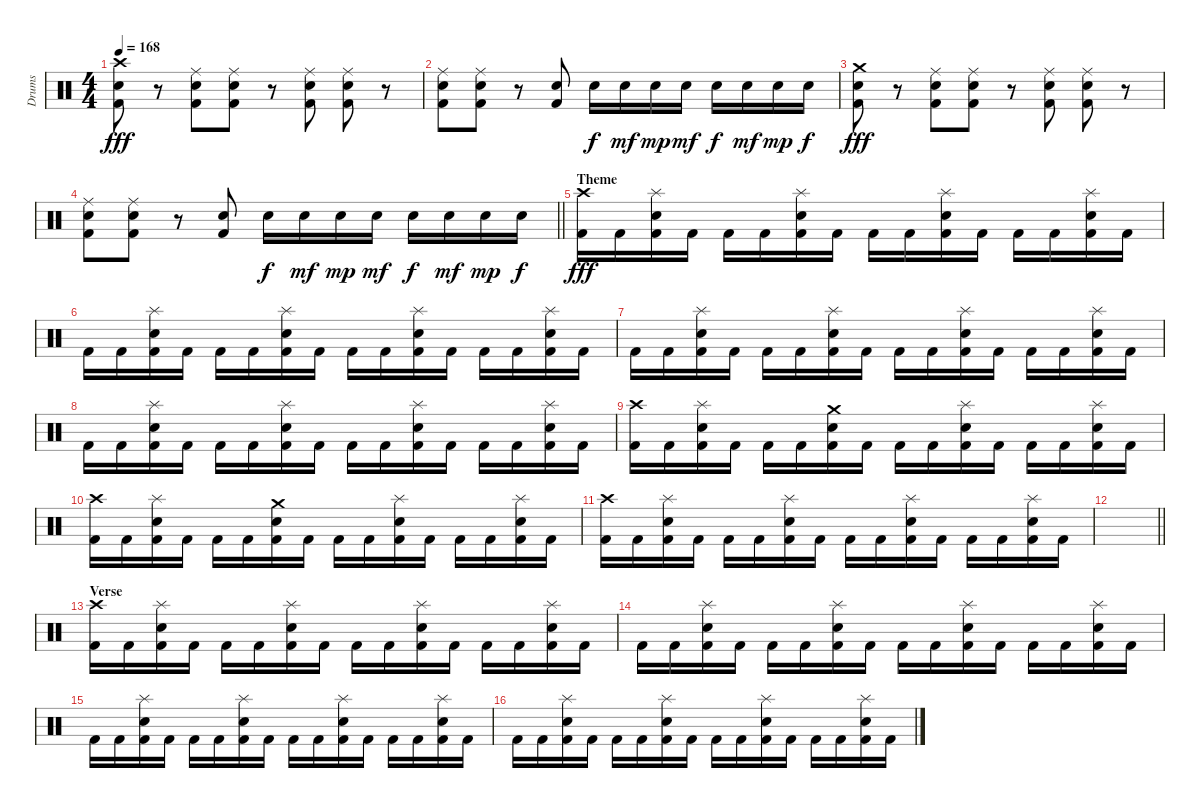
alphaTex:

\track ("Drums" "Drums") {instrument percussion}
\staff {score}
\articulation defaults
\ts (4 4)
\tempo 168
\clef neutral
\ks aminor
("Crash high (hit)" "Snare (hit) 2" "Kick (hit) 2").8{dy fff} r.8 ("Ride (middle)" "Snare (hit) 2" "Kick (hit) 2").8 ("Ride (middle)" "Snare (hit) 2" "Kick (hit) 2").8 r.8 ("Ride (middle)" "Snare (hit) 2" "Kick (hit) 2").8 ("Ride (middle)" "Snare (hit) 2" "Kick (hit) 2").8 r.8 |
("Ride (middle)" "Snare (hit) 2" "Kick (hit) 2").8 ("Ride (middle)" "Snare (hit) 2" "Kick (hit) 2").8 r.8 ("Snare (hit) 2" "Kick (hit) 2").8 "Snare (hit) 2".16{dy f} "Snare (hit) 2".16{dy mf} "Snare (hit) 2".16{dy mp} "Snare (hit) 2".16{dy mf} "Snare (hit) 2".16{dy f} "Snare (hit) 2".16{dy mf} "Snare (hit) 2".16{dy mp} "Snare (hit) 2".16{dy f} |
("Crash medium (hit)" "Snare (hit) 2" "Kick (hit) 2").8{dy fff} r.8 ("Ride (middle)" "Snare (hit) 2" "Kick (hit) 2").8 ("Ride (middle)" "Snare (hit) 2" "Kick (hit) 2").8 r.8 ("Ride (middle)" "Snare (hit) 2" "Kick (hit) 2").8 ("Ride (middle)" "Snare (hit) 2" "Kick (hit) 2").8 r.8 |
\barLineRight lightlight
("Ride (middle)" "Snare (hit) 2" "Kick (hit) 2").8 ("Ride (middle)" "Snare (hit) 2" "Kick (hit) 2").8 r.8 ("Snare (hit) 2" "Kick (hit) 2").8 "Snare (hit) 2".16{dy f} "Snare (hit) 2".16{dy mf} "Snare (hit) 2".16{dy mp} "Snare (hit) 2".16{dy mf} "Snare (hit) 2".16{dy f} "Snare (hit) 2".16{dy mf} "Snare (hit) 2".16{dy mp} "Snare (hit) 2".16{dy f} |
\section ("" "Theme")
("Crash high (hit)" "Kick (hit) 2").16{dy fff} "Kick (hit) 2".16 ("Splash (hit)" "Snare (hit) 2" "Kick (hit) 2").16 "Kick (hit) 2".16 "Kick (hit) 2".16 "Kick (hit) 2".16 ("Splash (hit)" "Snare (hit) 2" "Kick (hit) 2").16 "Kick (hit) 2".16 "Kick (hit) 2".16 "Kick (hit) 2".16 ("Splash (hit)" "Snare (hit) 2" "Kick (hit) 2").16 "Kick (hit) 2".16 "Kick (hit) 2".16 "Kick (hit) 2".16 ("Splash (hit)" "Snare (hit) 2" "Kick (hit) 2").16 "Kick (hit) 2".16 |
"Kick (hit) 2".16 "Kick (hit) 2".16 ("Splash (hit)" "Snare (hit) 2" "Kick (hit) 2").16 "Kick (hit) 2".16 "Kick (hit) 2".16 "Kick (hit) 2".16 ("Splash (hit)" "Snare (hit) 2" "Kick (hit) 2").16 "Kick (hit) 2".16 "Kick (hit) 2".16 "Kick (hit) 2".16 ("Splash (hit)" "Snare (hit) 2" "Kick (hit) 2").16 "Kick (hit) 2".16 "Kick (hit) 2".16 "Kick (hit) 2".16 ("Splash (hit)" "Snare (hit) 2" "Kick (hit) 2").16 "Kick (hit) 2".16 |
"Kick (hit) 2".16 "Kick (hit) 2".16 ("Splash (hit)" "Snare (hit) 2" "Kick (hit) 2").16 "Kick (hit) 2".16 "Kick (hit) 2".16 "Kick (hit) 2".16 ("Splash (hit)" "Snare (hit) 2" "Kick (hit) 2").16 "Kick (hit) 2".16 "Kick (hit) 2".16 "Kick (hit) 2".16 ("Splash (hit)" "Snare (hit) 2" "Kick (hit) 2").16 "Kick (hit) 2".16 "Kick (hit) 2".16 "Kick (hit) 2".16 ("Splash (hit)" "Snare (hit) 2" "Kick (hit) 2").16 "Kick (hit) 2".16 |
"Kick (hit) 2".16 "Kick (hit) 2".16 ("Splash (hit)" "Snare (hit) 2" "Kick (hit) 2").16 "Kick (hit) 2".16 "Kick (hit) 2".16 "Kick (hit) 2".16 ("Splash (hit)" "Snare (hit) 2" "Kick (hit) 2").16 "Kick (hit) 2".16 "Kick (hit) 2".16 "Kick (hit) 2".16 ("Splash (hit)" "Snare (hit) 2" "Kick (hit) 2").16 "Kick (hit) 2".16 "Kick (hit) 2".16 "Kick (hit) 2".16 ("Splash (hit)" "Snare (hit) 2" "Kick (hit) 2").16 "Kick (hit) 2".16 |
("Crash high (hit)" "Kick (hit) 2").16 "Kick (hit) 2".16 ("Splash (hit)" "Snare (hit) 2" "Kick (hit) 2").16 "Kick (hit) 2".16 "Kick (hit) 2".16 "Kick (hit) 2".16 ("Crash medium (hit)" "Snare (hit) 2" "Kick (hit) 2").16 "Kick (hit) 2".16 "Kick (hit) 2".16 "Kick (hit) 2".16 ("Splash (hit)" "Snare (hit) 2" "Kick (hit) 2").16 "Kick (hit) 2".16 "Kick (hit) 2".16 "Kick (hit) 2".16 ("Splash (hit)" "Snare (hit) 2" "Kick (hit) 2").16 "Kick (hit) 2".16 |
("Crash high (hit)" "Kick (hit) 2").16 "Kick (hit) 2".16 ("Splash (hit)" "Snare (hit) 2" "Kick (hit) 2").16 "Kick (hit) 2".16 "Kick (hit) 2".16 "Kick (hit) 2".16 ("Crash medium (hit)" "Snare (hit) 2" "Kick (hit) 2").16 "Kick (hit) 2".16 "Kick (hit) 2".16 "Kick (hit) 2".16 ("Splash (hit)" "Snare (hit) 2" "Kick (hit) 2").16 "Kick (hit) 2".16 "Kick (hit) 2".16 "Kick (hit) 2".16 ("Splash (hit)" "Snare (hit) 2" "Kick (hit) 2").16 "Kick (hit) 2".16 |
("Crash high (hit)" "Kick (hit) 2").16 "Kick (hit) 2".16 ("Splash (hit)" "Snare (hit) 2" "Kick (hit) 2").16 "Kick (hit) 2".16 "Kick (hit) 2".16 "Kick (hit) 2".16 ("Splash (hit)" "Snare (hit) 2" "Kick (hit) 2").16 "Kick (hit) 2".16 "Kick (hit) 2".16 "Kick (hit) 2".16 ("Splash (hit)" "Snare (hit) 2" "Kick (hit) 2").16 "Kick (hit) 2".16 "Kick (hit) 2".16 "Kick (hit) 2".16 ("Splash (hit)" "Snare (hit) 2" "Kick (hit) 2").16 "Kick (hit) 2".16 |
\barLineRight lightlight
|
\section ("" "Verse")
("Crash high (hit)" "Kick (hit) 2").16 "Kick (hit) 2".16 ("Splash (hit)" "Snare (hit) 2" "Kick (hit) 2").16 "Kick (hit) 2".16 "Kick (hit) 2".16 "Kick (hit) 2".16 ("Splash (hit)" "Snare (hit) 2" "Kick (hit) 2").16 "Kick (hit) 2".16 "Kick (hit) 2".16 "Kick (hit) 2".16 ("Splash (hit)" "Snare (hit) 2" "Kick (hit) 2").16 "Kick (hit) 2".16 "Kick (hit) 2".16 "Kick (hit) 2".16 ("Splash (hit)" "Snare (hit) 2" "Kick (hit) 2").16 "Kick (hit) 2".16 |
"Kick (hit) 2".16 "Kick (hit) 2".16 ("Splash (hit)" "Snare (hit) 2" "Kick (hit) 2").16 "Kick (hit) 2".16 "Kick (hit) 2".16 "Kick (hit) 2".16 ("Splash (hit)" "Snare (hit) 2" "Kick (hit) 2").16 "Kick (hit) 2".16 "Kick (hit) 2".16 "Kick (hit) 2".16 ("Splash (hit)" "Snare (hit) 2" "Kick (hit) 2").16 "Kick (hit) 2".16 "Kick (hit) 2".16 "Kick (hit) 2".16 ("Splash (hit)" "Snare (hit) 2" "Kick (hit) 2").16 "Kick (hit) 2".16 |
"Kick (hit) 2".16 "Kick (hit) 2".16 ("Splash (hit)" "Snare (hit) 2" "Kick (hit) 2").16 "Kick (hit) 2".16 "Kick (hit) 2".16 "Kick (hit) 2".16 ("Splash (hit)" "Snare (hit) 2" "Kick (hit) 2").16 "Kick (hit) 2".16 "Kick (hit) 2".16 "Kick (hit) 2".16 ("Splash (hit)" "Snare (hit) 2" "Kick (hit) 2").16 "Kick (hit) 2".16 "Kick (hit) 2".16 "Kick (hit) 2".16 ("Splash (hit)" "Snare (hit) 2" "Kick (hit) 2").16 "Kick (hit) 2".16 |
"Kick (hit) 2".16 "Kick (hit) 2".16 ("Splash (hit)" "Snare (hit) 2" "Kick (hit) 2").16 "Kick (hit) 2".16 "Kick (hit) 2".16 "Kick (hit) 2".16 ("Splash (hit)" "Snare (hit) 2" "Kick (hit) 2").16 "Kick (hit) 2".16 "Kick (hit) 2".16 "Kick (hit) 2".16 ("Splash (hit)" "Snare (hit) 2" "Kick (hit) 2").16 "Kick (hit) 2".16 "Kick (hit) 2".16 "Kick (hit) 2".16 ("Splash (hit)" "Snare (hit) 2" "Kick (hit) 2").16 "Kick (hit) 2".16
